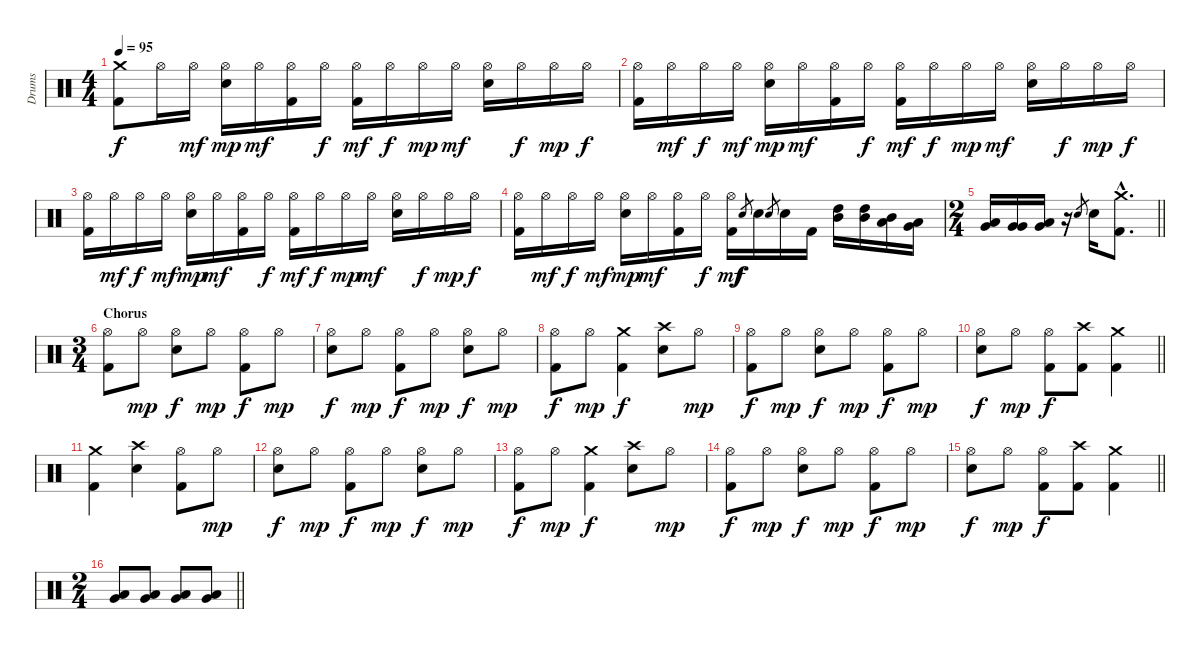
\track ("Drums" "Drums") {instrument percussion}
\staff {score}
\articulation defaults
\ts (4 4)
\tempo 95
\clef neutral
\ks c
("Crash medium (hit)" "Kick (hit) 2").8{dy f} "Hi-Hat (open)".16 "Hi-Hat (open)".16{dy mf} ("Hi-Hat (open)" "Snare (hit) 2").16{dy mp} "Hi-Hat (open)".16{dy mf} ("Hi-Hat (open)" "Kick (hit) 2").16 "Hi-Hat (open)".16{dy f} ("Hi-Hat (open)" "Kick (hit) 2").16{dy mf} "Hi-Hat (open)".16{dy f} "Hi-Hat (open)".16{dy mp} "Hi-Hat (open)".16{dy mf} ("Hi-Hat (open)" "Snare (hit) 2").16 "Hi-Hat (open)".16{dy f} "Hi-Hat (open)".16{dy mp} "Hi-Hat (open)".16{dy f} |
("Hi-Hat (open)" "Kick (hit) 2").16 "Hi-Hat (open)".16{dy mf} "Hi-Hat (open)".16{dy f} "Hi-Hat (open)".16{dy mf} ("Hi-Hat (open)" "Snare (hit) 2").16{dy mp} "Hi-Hat (open)".16{dy mf} ("Hi-Hat (open)" "Kick (hit) 2").16 "Hi-Hat (open)".16{dy f} ("Hi-Hat (open)" "Kick (hit) 2").16{dy mf} "Hi-Hat (open)".16{dy f} "Hi-Hat (open)".16{dy mp} "Hi-Hat (open)".16{dy mf} ("Hi-Hat (open)" "Snare (hit) 2").16 "Hi-Hat (open)".16{dy f} "Hi-Hat (open)".16{dy mp} "Hi-Hat (open)".16{dy f} |
("Hi-Hat (open)" "Kick (hit) 2").16 "Hi-Hat (open)".16{dy mf} "Hi-Hat (open)".16{dy f} "Hi-Hat (open)".16{dy mf} ("Hi-Hat (open)" "Snare (hit) 2").16{dy mp} "Hi-Hat (open)".16{dy mf} ("Hi-Hat (open)" "Kick (hit) 2").16 "Hi-Hat (open)".16{dy f} ("Hi-Hat (open)" "Kick (hit) 2").16{dy mf} "Hi-Hat (open)".16{dy f} "Hi-Hat (open)".16{dy mp} "Hi-Hat (open)".16{dy mf} ("Hi-Hat (open)" "Snare (hit) 2").16 "Hi-Hat (open)".16{dy f} "Hi-Hat (open)".16{dy mp} "Hi-Hat (open)".16{dy f} |
("Hi-Hat (open)" "Kick (hit) 2").16 "Hi-Hat (open)".16{dy mf} "Hi-Hat (open)".16{dy f} "Hi-Hat (open)".16{dy mf} ("Hi-Hat (open)" "Snare (hit) 2").16{dy mp} "Hi-Hat (open)".16{dy mf} ("Hi-Hat (open)" "Kick (hit) 2").16 "Hi-Hat (open)".16{dy f} ("Hi-Hat (open)" "Kick (hit) 2").16{dy mf} "Electric Snare (hit)".8{gr dy f} "Snare (hit) 2".16 "Electric Snare (hit)".8{gr} "Snare (hit) 2".16 "Kick (hit) 2".16 ("High Tom (hit)" "Mid Tom (hit)").16 ("High Tom (hit)" "Mid Tom (hit)").16 ("Mid Tom (hit)" "Low Tom (hit)").16 ("Low Tom (hit)" "Very Low Tom (hit)").16 |
\ts (2 4)
\barLineRight lightlight
("Low Tom (hit)" "Very Low Tom (hit)").16 ("Very Low Tom (hit)" "Very Low Tom (hit)").16 ("Very Low Tom (hit)" "Low Floor Tom (hit)").16 r.16 "Electric Snare (hit)".8{gr} "Snare (hit) 2".16 ("Crash medium (hit)"{hac} "Kick (hit) 2"{hac}).8{d} |
\ts (3 4)
\section ("" "Chorus")
("Hi-Hat (open)" "Kick (hit) 2").8 "Hi-Hat (open)".8{dy mp} ("Hi-Hat (open)" "Snare (hit) 2").8{dy f} "Hi-Hat (open)".8{dy mp} ("Hi-Hat (open)" "Kick (hit) 2").8{dy f} "Hi-Hat (open)".8{dy mp} |
("Hi-Hat (open)" "Snare (hit) 2").8{dy f} "Hi-Hat (open)".8{dy mp} ("Hi-Hat (open)" "Kick (hit) 2").8{dy f} "Hi-Hat (open)".8{dy mp} ("Hi-Hat (open)" "Snare (hit) 2").8{dy f} "Hi-Hat (open)".8{dy mp} |
("Hi-Hat (open)" "Kick (hit) 2").8{dy f} "Hi-Hat (open)".8{dy mp} ("Crash medium (hit)" "Kick (hit) 2").4{dy f} ("Crash high (hit)" "Snare (hit) 2").8 "Hi-Hat (open)".8{dy mp} |
("Hi-Hat (open)" "Kick (hit) 2").8{dy f} "Hi-Hat (open)".8{dy mp} ("Hi-Hat (open)" "Snare (hit) 2").8{dy f} "Hi-Hat (open)".8{dy mp} ("Hi-Hat (open)" "Kick (hit) 2").8{dy f} "Hi-Hat (open)".8{dy mp} |
\barLineRight lightlight
("Hi-Hat (open)" "Snare (hit) 2").8{dy f} "Hi-Hat (open)".8{dy mp} ("Hi-Hat (open)" "Kick (hit) 2").8{dy f} ("Crash high (hit)" "Kick (hit) 2").8 ("Crash medium (hit)" "Kick (hit) 2").4 |
("Crash medium (hit)" "Kick (hit) 2").4 ("Crash high (hit)" "Snare (hit) 2").4 ("Hi-Hat (open)" "Kick (hit) 2").8 "Hi-Hat (open)".8{dy mp} |
("Hi-Hat (open)" "Snare (hit) 2").8{dy f} "Hi-Hat (open)".8{dy mp} ("Hi-Hat (open)" "Kick (hit) 2").8{dy f} "Hi-Hat (open)".8{dy mp} ("Hi-Hat (open)" "Snare (hit) 2").8{dy f} "Hi-Hat (open)".8{dy mp} |
("Hi-Hat (open)" "Kick (hit) 2").8{dy f} "Hi-Hat (open)".8{dy mp} ("Crash medium (hit)" "Kick (hit) 2").4{dy f} ("Crash high (hit)" "Snare (hit) 2").8 "Hi-Hat (open)".8{dy mp} |
("Hi-Hat (open)" "Kick (hit) 2").8{dy f} "Hi-Hat (open)".8{dy mp} ("Hi-Hat (open)" "Snare (hit) 2").8{dy f} "Hi-Hat (open)".8{dy mp} ("Hi-Hat (open)" "Kick (hit) 2").8{dy f} "Hi-Hat (open)".8{dy mp} |
\barLineRight lightlight
("Hi-Hat (open)" "Snare (hit) 2").8{dy f} "Hi-Hat (open)".8{dy mp} ("Hi-Hat (open)" "Kick (hit) 2").8{dy f} ("Crash high (hit)" "Kick (hit) 2").8 ("Crash medium (hit)" "Kick (hit) 2").4 |
\ts (2 4)
\barLineRight lightlight
("Very Low Tom (hit)" "Low Floor Tom (hit)").8 ("Very Low Tom (hit)" "Low Floor Tom (hit)").8 ("Very Low Tom (hit)" "Low Floor Tom (hit)").8 ("Very Low Tom (hit)" "Low Floor Tom (hit)").8
